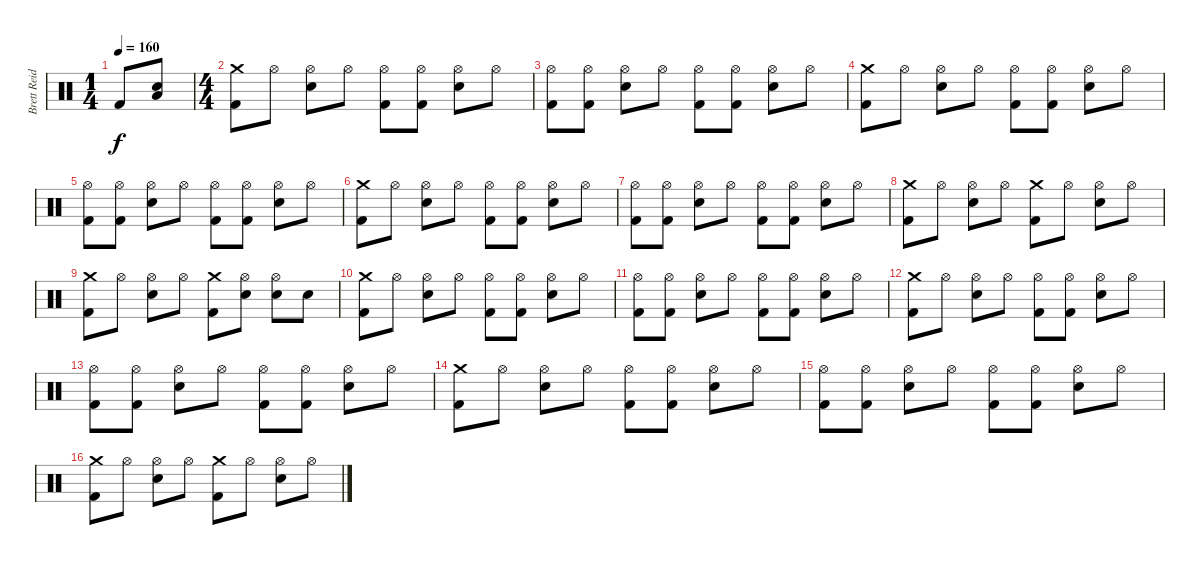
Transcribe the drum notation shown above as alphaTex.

\track ("Brett Reid" "Brett Reid") {instrument percussion}
\staff {score}
\articulation defaults
\ts (1 4)
\tempo 160
\clef neutral
\ks c "Kick (hit) 2".8{dy f}
("Low Floor Tom (hit)" "Snare (hit) 2").8 |
\ts (4 4)
("Crash medium (hit)" "Kick (hit) 2").8 "Hi-Hat (open)".8 ("Hi-Hat (open)" "Snare (hit) 2").8 "Hi-Hat (open)".8 ("Hi-Hat (open)" "Kick (hit) 2").8 ("Hi-Hat (open)" "Kick (hit) 2").8 ("Hi-Hat (open)" "Snare (hit) 2").8 "Hi-Hat (open)".8 |
("Hi-Hat (open)" "Kick (hit) 2").8 ("Hi-Hat (open)" "Kick (hit) 2").8 ("Hi-Hat (open)" "Snare (hit) 2").8 "Hi-Hat (open)".8 ("Hi-Hat (open)" "Kick (hit) 2").8 ("Hi-Hat (open)" "Kick (hit) 2").8 ("Hi-Hat (open)" "Snare (hit) 2").8 "Hi-Hat (open)".8 |
("Crash medium (hit)" "Kick (hit) 2").8 "Hi-Hat (open)".8 ("Hi-Hat (open)" "Snare (hit) 2").8 "Hi-Hat (open)".8 ("Hi-Hat (open)" "Kick (hit) 2").8 ("Hi-Hat (open)" "Kick (hit) 2").8 ("Hi-Hat (open)" "Snare (hit) 2").8 "Hi-Hat (open)".8 |
("Hi-Hat (open)" "Kick (hit) 2").8 ("Hi-Hat (open)" "Kick (hit) 2").8 ("Hi-Hat (open)" "Snare (hit) 2").8 "Hi-Hat (open)".8 ("Hi-Hat (open)" "Kick (hit) 2").8 ("Hi-Hat (open)" "Kick (hit) 2").8 ("Hi-Hat (open)" "Snare (hit) 2").8 "Hi-Hat (open)".8 |
("Crash medium (hit)" "Kick (hit) 2").8 "Hi-Hat (open)".8 ("Hi-Hat (open)" "Snare (hit) 2").8 "Hi-Hat (open)".8 ("Hi-Hat (open)" "Kick (hit) 2").8 ("Hi-Hat (open)" "Kick (hit) 2").8 ("Hi-Hat (open)" "Snare (hit) 2").8 "Hi-Hat (open)".8 |
("Hi-Hat (open)" "Kick (hit) 2").8 ("Hi-Hat (open)" "Kick (hit) 2").8 ("Hi-Hat (open)" "Snare (hit) 2").8 "Hi-Hat (open)".8 ("Hi-Hat (open)" "Kick (hit) 2").8 ("Hi-Hat (open)" "Kick (hit) 2").8 ("Hi-Hat (open)" "Snare (hit) 2").8 "Hi-Hat (open)".8 |
("Crash medium (hit)" "Kick (hit) 2").8 "Hi-Hat (open)".8 ("Hi-Hat (open)" "Snare (hit) 2").8 "Hi-Hat (open)".8 ("Crash medium (hit)" "Kick (hit) 2").8 "Hi-Hat (open)".8 ("Hi-Hat (open)" "Snare (hit) 2").8 "Hi-Hat (open)".8 |
("Crash medium (hit)" "Kick (hit) 2").8 "Hi-Hat (open)".8 ("Hi-Hat (open)" "Snare (hit) 2").8 "Hi-Hat (open)".8 ("Crash medium (hit)" "Kick (hit) 2").8 ("Hi-Hat (open)" "Snare (hit) 2").8 ("Hi-Hat (open)" "Snare (hit) 2").8 "Snare (hit) 2".8 |
("Crash medium (hit)" "Kick (hit) 2").8 "Hi-Hat (open)".8 ("Hi-Hat (open)" "Snare (hit) 2").8 "Hi-Hat (open)".8 ("Hi-Hat (open)" "Kick (hit) 2").8 ("Hi-Hat (open)" "Kick (hit) 2").8 ("Hi-Hat (open)" "Snare (hit) 2").8 "Hi-Hat (open)".8 |
("Hi-Hat (open)" "Kick (hit) 2").8 ("Hi-Hat (open)" "Kick (hit) 2").8 ("Hi-Hat (open)" "Snare (hit) 2").8 "Hi-Hat (open)".8 ("Hi-Hat (open)" "Kick (hit) 2").8 ("Hi-Hat (open)" "Kick (hit) 2").8 ("Hi-Hat (open)" "Snare (hit) 2").8 "Hi-Hat (open)".8 |
("Crash medium (hit)" "Kick (hit) 2").8 "Hi-Hat (open)".8 ("Hi-Hat (open)" "Snare (hit) 2").8 "Hi-Hat (open)".8 ("Hi-Hat (open)" "Kick (hit) 2").8 ("Hi-Hat (open)" "Kick (hit) 2").8 ("Hi-Hat (open)" "Snare (hit) 2").8 "Hi-Hat (open)".8 |
("Hi-Hat (open)" "Kick (hit) 2").8 ("Hi-Hat (open)" "Kick (hit) 2").8 ("Hi-Hat (open)" "Snare (hit) 2").8 "Hi-Hat (open)".8 ("Hi-Hat (open)" "Kick (hit) 2").8 ("Hi-Hat (open)" "Kick (hit) 2").8 ("Hi-Hat (open)" "Snare (hit) 2").8 "Hi-Hat (open)".8 |
("Crash medium (hit)" "Kick (hit) 2").8 "Hi-Hat (open)".8 ("Hi-Hat (open)" "Snare (hit) 2").8 "Hi-Hat (open)".8 ("Hi-Hat (open)" "Kick (hit) 2").8 ("Hi-Hat (open)" "Kick (hit) 2").8 ("Hi-Hat (open)" "Snare (hit) 2").8 "Hi-Hat (open)".8 |
("Hi-Hat (open)" "Kick (hit) 2").8 ("Hi-Hat (open)" "Kick (hit) 2").8 ("Hi-Hat (open)" "Snare (hit) 2").8 "Hi-Hat (open)".8 ("Hi-Hat (open)" "Kick (hit) 2").8 ("Hi-Hat (open)" "Kick (hit) 2").8 ("Hi-Hat (open)" "Snare (hit) 2").8 "Hi-Hat (open)".8 |
("Crash medium (hit)" "Kick (hit) 2").8 "Hi-Hat (open)".8 ("Hi-Hat (open)" "Snare (hit) 2").8 "Hi-Hat (open)".8 ("Crash medium (hit)" "Kick (hit) 2").8 "Hi-Hat (open)".8 ("Hi-Hat (open)" "Snare (hit) 2").8 "Hi-Hat (open)".8
